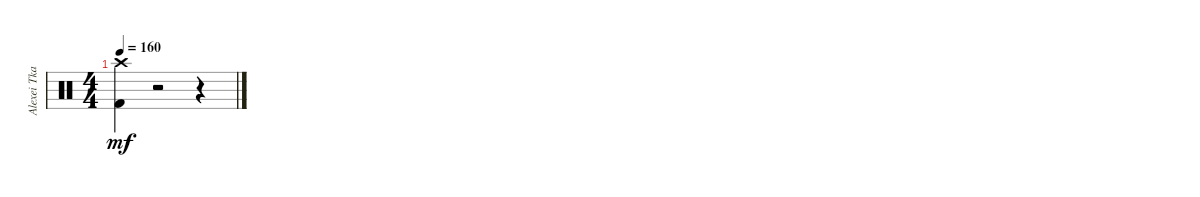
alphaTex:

\track ("Alexei Tkachevskiy " "Alexei Tka") {instrument percussion}
\staff {score}
\articulation defaults
\ts (4 4)
\tempo 160
\clef neutral
\ks c
("Crash high (hit)" "Kick (hit) 2").4{dy mf} r.2 r.4
